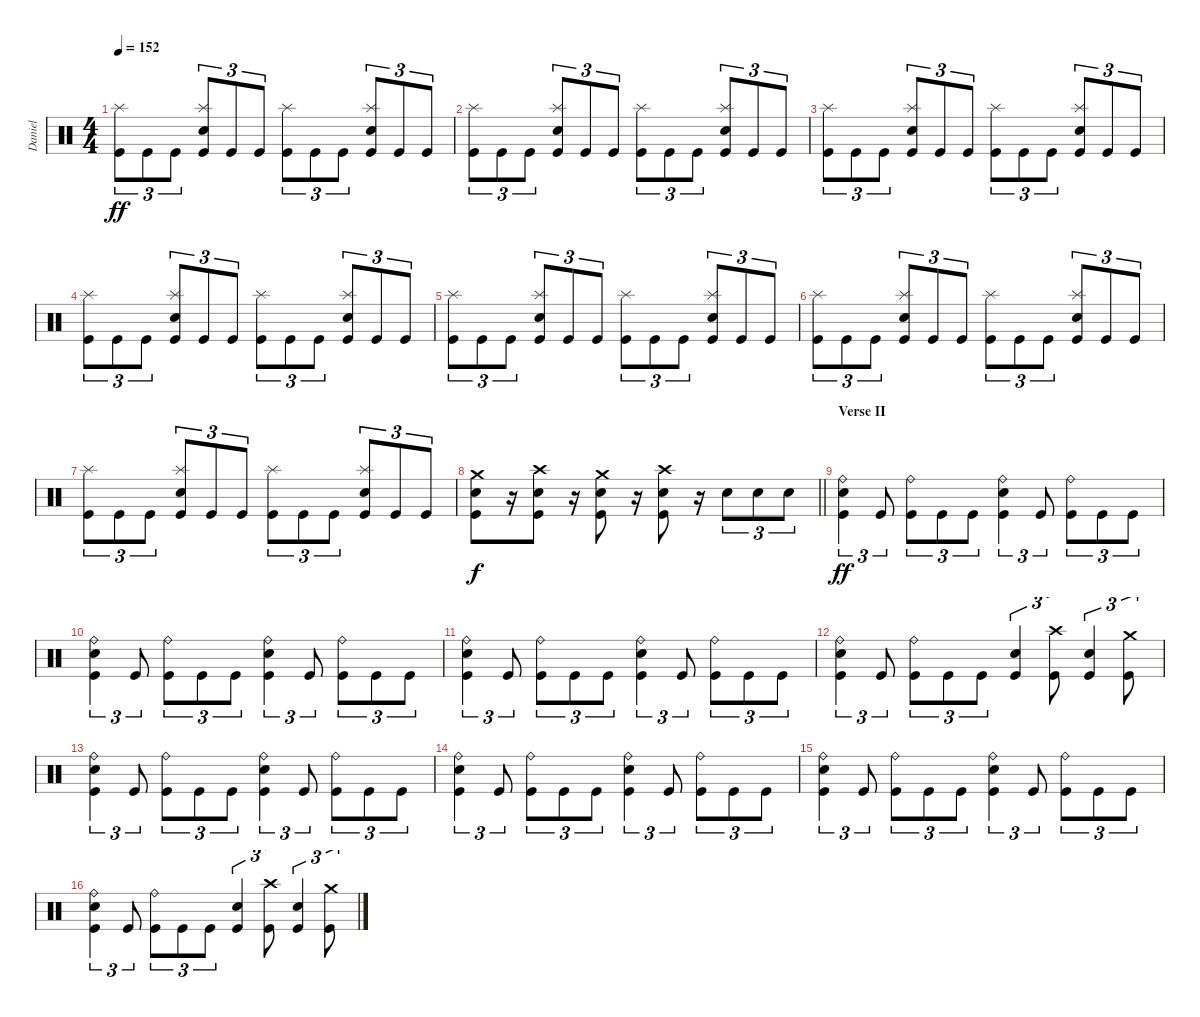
\track ("Daniel" "Daniel") {instrument percussion}
\staff {score}
\articulation defaults
\ts (4 4)
\tempo 152
\clef neutral
\ks c
("Kick (hit)" "Splash (hit)").8{tu (3 2) dy ff} "Kick (hit)".8{tu (3 2)} "Kick (hit)".8{tu (3 2)} ("Kick (hit)" "Snare (hit) 2" "Splash (hit)").8{tu (3 2)} "Kick (hit)".8{tu (3 2)} "Kick (hit)".8{tu (3 2)} ("Kick (hit)" "Splash (hit)").8{tu (3 2)} "Kick (hit)".8{tu (3 2)} "Kick (hit)".8{tu (3 2)} ("Kick (hit)" "Snare (hit) 2" "Splash (hit)").8{tu (3 2)} "Kick (hit)".8{tu (3 2)} "Kick (hit)".8{tu (3 2)} |
("Kick (hit)" "Splash (hit)").8{tu (3 2)} "Kick (hit)".8{tu (3 2)} "Kick (hit)".8{tu (3 2)} ("Kick (hit)" "Snare (hit) 2" "Splash (hit)").8{tu (3 2)} "Kick (hit)".8{tu (3 2)} "Kick (hit)".8{tu (3 2)} ("Kick (hit)" "Splash (hit)").8{tu (3 2)} "Kick (hit)".8{tu (3 2)} "Kick (hit)".8{tu (3 2)} ("Kick (hit)" "Snare (hit) 2" "Splash (hit)").8{tu (3 2)} "Kick (hit)".8{tu (3 2)} "Kick (hit)".8{tu (3 2)} |
("Kick (hit)" "Splash (hit)").8{tu (3 2)} "Kick (hit)".8{tu (3 2)} "Kick (hit)".8{tu (3 2)} ("Kick (hit)" "Snare (hit) 2" "Splash (hit)").8{tu (3 2)} "Kick (hit)".8{tu (3 2)} "Kick (hit)".8{tu (3 2)} ("Kick (hit)" "Splash (hit)").8{tu (3 2)} "Kick (hit)".8{tu (3 2)} "Kick (hit)".8{tu (3 2)} ("Kick (hit)" "Snare (hit) 2" "Splash (hit)").8{tu (3 2)} "Kick (hit)".8{tu (3 2)} "Kick (hit)".8{tu (3 2)} |
("Kick (hit)" "Splash (hit)").8{tu (3 2)} "Kick (hit)".8{tu (3 2)} "Kick (hit)".8{tu (3 2)} ("Kick (hit)" "Snare (hit) 2" "Splash (hit)").8{tu (3 2)} "Kick (hit)".8{tu (3 2)} "Kick (hit)".8{tu (3 2)} ("Kick (hit)" "Splash (hit)").8{tu (3 2)} "Kick (hit)".8{tu (3 2)} "Kick (hit)".8{tu (3 2)} ("Kick (hit)" "Snare (hit) 2" "Splash (hit)").8{tu (3 2)} "Kick (hit)".8{tu (3 2)} "Kick (hit)".8{tu (3 2)} |
("Kick (hit)" "Splash (hit)").8{tu (3 2)} "Kick (hit)".8{tu (3 2)} "Kick (hit)".8{tu (3 2)} ("Kick (hit)" "Snare (hit) 2" "Splash (hit)").8{tu (3 2)} "Kick (hit)".8{tu (3 2)} "Kick (hit)".8{tu (3 2)} ("Kick (hit)" "Splash (hit)").8{tu (3 2)} "Kick (hit)".8{tu (3 2)} "Kick (hit)".8{tu (3 2)} ("Kick (hit)" "Snare (hit) 2" "Splash (hit)").8{tu (3 2)} "Kick (hit)".8{tu (3 2)} "Kick (hit)".8{tu (3 2)} |
("Kick (hit)" "Splash (hit)").8{tu (3 2)} "Kick (hit)".8{tu (3 2)} "Kick (hit)".8{tu (3 2)} ("Kick (hit)" "Snare (hit) 2" "Splash (hit)").8{tu (3 2)} "Kick (hit)".8{tu (3 2)} "Kick (hit)".8{tu (3 2)} ("Kick (hit)" "Splash (hit)").8{tu (3 2)} "Kick (hit)".8{tu (3 2)} "Kick (hit)".8{tu (3 2)} ("Kick (hit)" "Snare (hit) 2" "Splash (hit)").8{tu (3 2)} "Kick (hit)".8{tu (3 2)} "Kick (hit)".8{tu (3 2)} |
("Kick (hit)" "Splash (hit)").8{tu (3 2)} "Kick (hit)".8{tu (3 2)} "Kick (hit)".8{tu (3 2)} ("Kick (hit)" "Snare (hit) 2" "Splash (hit)").8{tu (3 2)} "Kick (hit)".8{tu (3 2)} "Kick (hit)".8{tu (3 2)} ("Kick (hit)" "Splash (hit)").8{tu (3 2)} "Kick (hit)".8{tu (3 2)} "Kick (hit)".8{tu (3 2)} ("Kick (hit)" "Snare (hit) 2" "Splash (hit)").8{tu (3 2)} "Kick (hit)".8{tu (3 2)} "Kick (hit)".8{tu (3 2)} |
\barLineRight lightlight
("Kick (hit)" "Snare (hit) 2" "Crash medium (hit)").8{dy f} r.16 ("Kick (hit)" "Snare (hit) 2" "Crash high (hit)").8 r.16 ("Kick (hit)" "Snare (hit) 2" "Crash medium (hit)").8 r.16 ("Kick (hit)" "Snare (hit) 2" "Crash high (hit)").8 r.16 "Snare (hit) 2".8{tu (3 2)} "Snare (hit) 2".8{tu (3 2)} "Snare (hit) 2".8{tu (3 2)} |
\section ("" "Verse II")
("Kick (hit)" "Snare (hit) 2" "Ride (bell)").4{tu (3 2) dy ff} "Kick (hit)".8{tu (3 2)} ("Kick (hit)" "Ride (bell)").8{tu (3 2)} "Kick (hit)".8{tu (3 2)} "Kick (hit)".8{tu (3 2)} ("Kick (hit)" "Snare (hit) 2" "Ride (bell)").4{tu (3 2)} "Kick (hit)".8{tu (3 2)} ("Kick (hit)" "Ride (bell)").8{tu (3 2)} "Kick (hit)".8{tu (3 2)} "Kick (hit)".8{tu (3 2)} |
("Kick (hit)" "Snare (hit) 2" "Ride (bell)").4{tu (3 2)} "Kick (hit)".8{tu (3 2)} ("Kick (hit)" "Ride (bell)").8{tu (3 2)} "Kick (hit)".8{tu (3 2)} "Kick (hit)".8{tu (3 2)} ("Kick (hit)" "Snare (hit) 2" "Ride (bell)").4{tu (3 2)} "Kick (hit)".8{tu (3 2)} ("Kick (hit)" "Ride (bell)").8{tu (3 2)} "Kick (hit)".8{tu (3 2)} "Kick (hit)".8{tu (3 2)} |
("Kick (hit)" "Snare (hit) 2" "Ride (bell)").4{tu (3 2)} "Kick (hit)".8{tu (3 2)} ("Kick (hit)" "Ride (bell)").8{tu (3 2)} "Kick (hit)".8{tu (3 2)} "Kick (hit)".8{tu (3 2)} ("Kick (hit)" "Snare (hit) 2" "Ride (bell)").4{tu (3 2)} "Kick (hit)".8{tu (3 2)} ("Kick (hit)" "Ride (bell)").8{tu (3 2)} "Kick (hit)".8{tu (3 2)} "Kick (hit)".8{tu (3 2)} |
("Kick (hit)" "Snare (hit) 2" "Ride (bell)").4{tu (3 2)} "Kick (hit)".8{tu (3 2)} ("Kick (hit)" "Ride (bell)").8{tu (3 2)} "Kick (hit)".8{tu (3 2)} "Kick (hit)".8{tu (3 2)} ("Kick (hit)" "Snare (hit) 2").4{tu (3 2)} ("Kick (hit)" "Crash high (hit)").8{tu (3 2)} ("Kick (hit)" "Snare (hit) 2").4{tu (3 2)} ("Kick (hit)" "Crash medium (hit)").8{tu (3 2)} |
("Kick (hit)" "Snare (hit) 2" "Ride (bell)").4{tu (3 2)} "Kick (hit)".8{tu (3 2)} ("Kick (hit)" "Ride (bell)").8{tu (3 2)} "Kick (hit)".8{tu (3 2)} "Kick (hit)".8{tu (3 2)} ("Kick (hit)" "Snare (hit) 2" "Ride (bell)").4{tu (3 2)} "Kick (hit)".8{tu (3 2)} ("Kick (hit)" "Ride (bell)").8{tu (3 2)} "Kick (hit)".8{tu (3 2)} "Kick (hit)".8{tu (3 2)} |
("Kick (hit)" "Snare (hit) 2" "Ride (bell)").4{tu (3 2)} "Kick (hit)".8{tu (3 2)} ("Kick (hit)" "Ride (bell)").8{tu (3 2)} "Kick (hit)".8{tu (3 2)} "Kick (hit)".8{tu (3 2)} ("Kick (hit)" "Snare (hit) 2" "Ride (bell)").4{tu (3 2)} "Kick (hit)".8{tu (3 2)} ("Kick (hit)" "Ride (bell)").8{tu (3 2)} "Kick (hit)".8{tu (3 2)} "Kick (hit)".8{tu (3 2)} |
("Kick (hit)" "Snare (hit) 2" "Ride (bell)").4{tu (3 2)} "Kick (hit)".8{tu (3 2)} ("Kick (hit)" "Ride (bell)").8{tu (3 2)} "Kick (hit)".8{tu (3 2)} "Kick (hit)".8{tu (3 2)} ("Kick (hit)" "Snare (hit) 2" "Ride (bell)").4{tu (3 2)} "Kick (hit)".8{tu (3 2)} ("Kick (hit)" "Ride (bell)").8{tu (3 2)} "Kick (hit)".8{tu (3 2)} "Kick (hit)".8{tu (3 2)} |
("Kick (hit)" "Snare (hit) 2" "Ride (bell)").4{tu (3 2)} "Kick (hit)".8{tu (3 2)} ("Kick (hit)" "Ride (bell)").8{tu (3 2)} "Kick (hit)".8{tu (3 2)} "Kick (hit)".8{tu (3 2)} ("Kick (hit)" "Snare (hit) 2").4{tu (3 2)} ("Kick (hit)" "Crash high (hit)").8{tu (3 2)} ("Kick (hit)" "Snare (hit) 2").4{tu (3 2)} ("Kick (hit)" "Crash medium (hit)").8{tu (3 2)}
